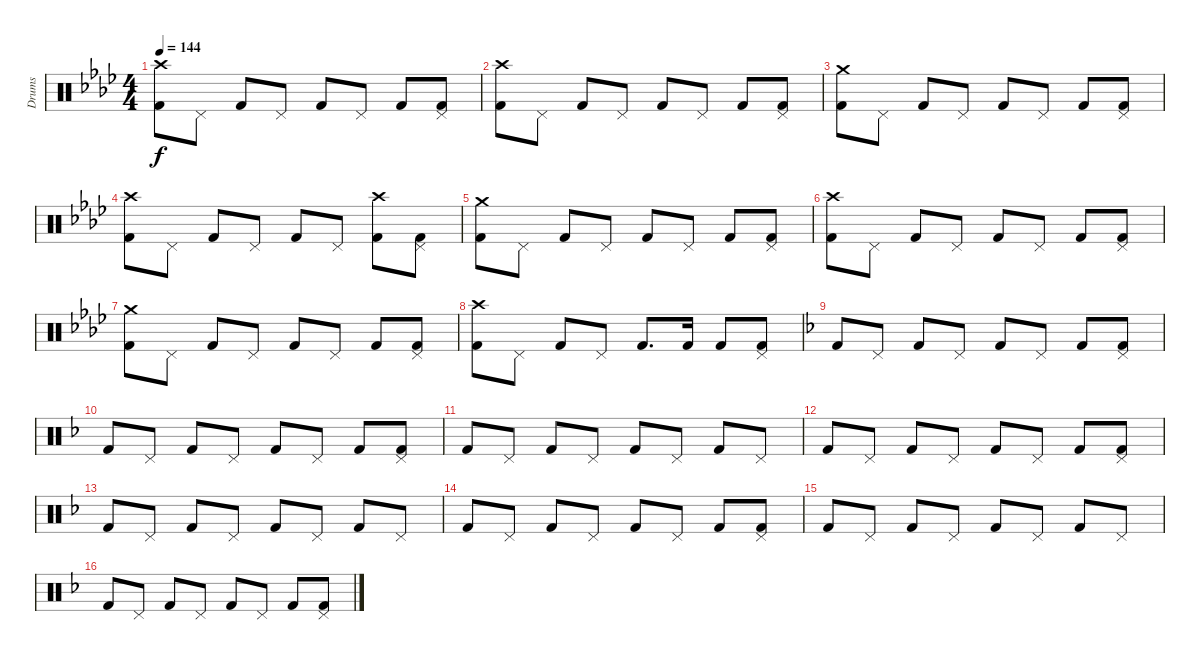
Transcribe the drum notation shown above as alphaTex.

\track ("Drums" "Drums") {instrument percussion}
\staff {score}
\articulation defaults
\ts (4 4)
\tempo 144
\clef neutral
\ks ab
("Kick (hit) 2" "Crash high (hit)").8{dy f} "Pedal Hi-Hat (hit)".8 "Kick (hit) 2".8 "Pedal Hi-Hat (hit)".8 "Kick (hit) 2".8 "Pedal Hi-Hat (hit)".8 "Kick (hit) 2".8 ("Kick (hit) 2" "Pedal Hi-Hat (hit)").8 |
("Kick (hit) 2" "Crash high (hit)").8 "Pedal Hi-Hat (hit)".8 "Kick (hit) 2".8 "Pedal Hi-Hat (hit)".8 "Kick (hit) 2".8 "Pedal Hi-Hat (hit)".8 "Kick (hit) 2".8 ("Kick (hit) 2" "Pedal Hi-Hat (hit)").8 |
("Kick (hit) 2" "Crash medium (hit)").8 "Pedal Hi-Hat (hit)".8 "Kick (hit) 2".8 "Pedal Hi-Hat (hit)".8 "Kick (hit) 2".8 "Pedal Hi-Hat (hit)".8 "Kick (hit) 2".8 ("Kick (hit) 2" "Pedal Hi-Hat (hit)").8 |
("Kick (hit) 2" "Crash high (hit)").8 "Pedal Hi-Hat (hit)".8 "Kick (hit) 2".8 "Pedal Hi-Hat (hit)".8 "Kick (hit) 2".8 "Pedal Hi-Hat (hit)".8 ("Kick (hit) 2" "Crash high (hit)").8 ("Kick (hit) 2" "Pedal Hi-Hat (hit)").8 |
("Kick (hit) 2" "Crash medium (hit)").8 "Pedal Hi-Hat (hit)".8 "Kick (hit) 2".8 "Pedal Hi-Hat (hit)".8 "Kick (hit) 2".8 "Pedal Hi-Hat (hit)".8 "Kick (hit) 2".8 ("Kick (hit) 2" "Pedal Hi-Hat (hit)").8 |
("Kick (hit) 2" "Crash high (hit)").8 "Pedal Hi-Hat (hit)".8 "Kick (hit) 2".8 "Pedal Hi-Hat (hit)".8 "Kick (hit) 2".8 "Pedal Hi-Hat (hit)".8 "Kick (hit) 2".8 ("Kick (hit) 2" "Pedal Hi-Hat (hit)").8 |
("Kick (hit) 2" "Crash medium (hit)").8 "Pedal Hi-Hat (hit)".8 "Kick (hit) 2".8 "Pedal Hi-Hat (hit)".8 "Kick (hit) 2".8 "Pedal Hi-Hat (hit)".8 "Kick (hit) 2".8 ("Kick (hit) 2" "Pedal Hi-Hat (hit)").8 |
("Kick (hit) 2" "Crash high (hit)").8 "Pedal Hi-Hat (hit)".8 "Kick (hit) 2".8 "Pedal Hi-Hat (hit)".8 "Kick (hit) 2".8{d} "Kick (hit) 2".16 "Kick (hit) 2".8 ("Kick (hit) 2" "Pedal Hi-Hat (hit)").8 |
\ks f "Kick (hit) 2".8 "Pedal Hi-Hat (hit)".8 "Kick (hit) 2".8 "Pedal Hi-Hat (hit)".8 "Kick (hit) 2".8 "Pedal Hi-Hat (hit)".8 "Kick (hit) 2".8
("Kick (hit) 2" "Pedal Hi-Hat (hit)").8 |
"Kick (hit) 2".8 "Pedal Hi-Hat (hit)".8 "Kick (hit) 2".8 "Pedal Hi-Hat (hit)".8 "Kick (hit) 2".8 "Pedal Hi-Hat (hit)".8 "Kick (hit) 2".8 ("Kick (hit) 2" "Pedal Hi-Hat (hit)").8 |
"Kick (hit) 2".8 "Pedal Hi-Hat (hit)".8 "Kick (hit) 2".8 "Pedal Hi-Hat (hit)".8 "Kick (hit) 2".8 "Pedal Hi-Hat (hit)".8 "Kick (hit) 2".8 "Pedal Hi-Hat (hit)".8 |
"Kick (hit) 2".8 "Pedal Hi-Hat (hit)".8 "Kick (hit) 2".8 "Pedal Hi-Hat (hit)".8 "Kick (hit) 2".8 "Pedal Hi-Hat (hit)".8 "Kick (hit) 2".8 ("Kick (hit) 2" "Pedal Hi-Hat (hit)").8 |
"Kick (hit) 2".8 "Pedal Hi-Hat (hit)".8 "Kick (hit) 2".8 "Pedal Hi-Hat (hit)".8 "Kick (hit) 2".8 "Pedal Hi-Hat (hit)".8 "Kick (hit) 2".8 "Pedal Hi-Hat (hit)".8 |
"Kick (hit) 2".8 "Pedal Hi-Hat (hit)".8 "Kick (hit) 2".8 "Pedal Hi-Hat (hit)".8 "Kick (hit) 2".8 "Pedal Hi-Hat (hit)".8 "Kick (hit) 2".8 ("Kick (hit) 2" "Pedal Hi-Hat (hit)").8 |
"Kick (hit) 2".8 "Pedal Hi-Hat (hit)".8 "Kick (hit) 2".8 "Pedal Hi-Hat (hit)".8 "Kick (hit) 2".8 "Pedal Hi-Hat (hit)".8 "Kick (hit) 2".8 "Pedal Hi-Hat (hit)".8 |
"Kick (hit) 2".8 "Pedal Hi-Hat (hit)".8 "Kick (hit) 2".8 "Pedal Hi-Hat (hit)".8 "Kick (hit) 2".8 "Pedal Hi-Hat (hit)".8 "Kick (hit) 2".8 ("Kick (hit) 2" "Pedal Hi-Hat (hit)").8
